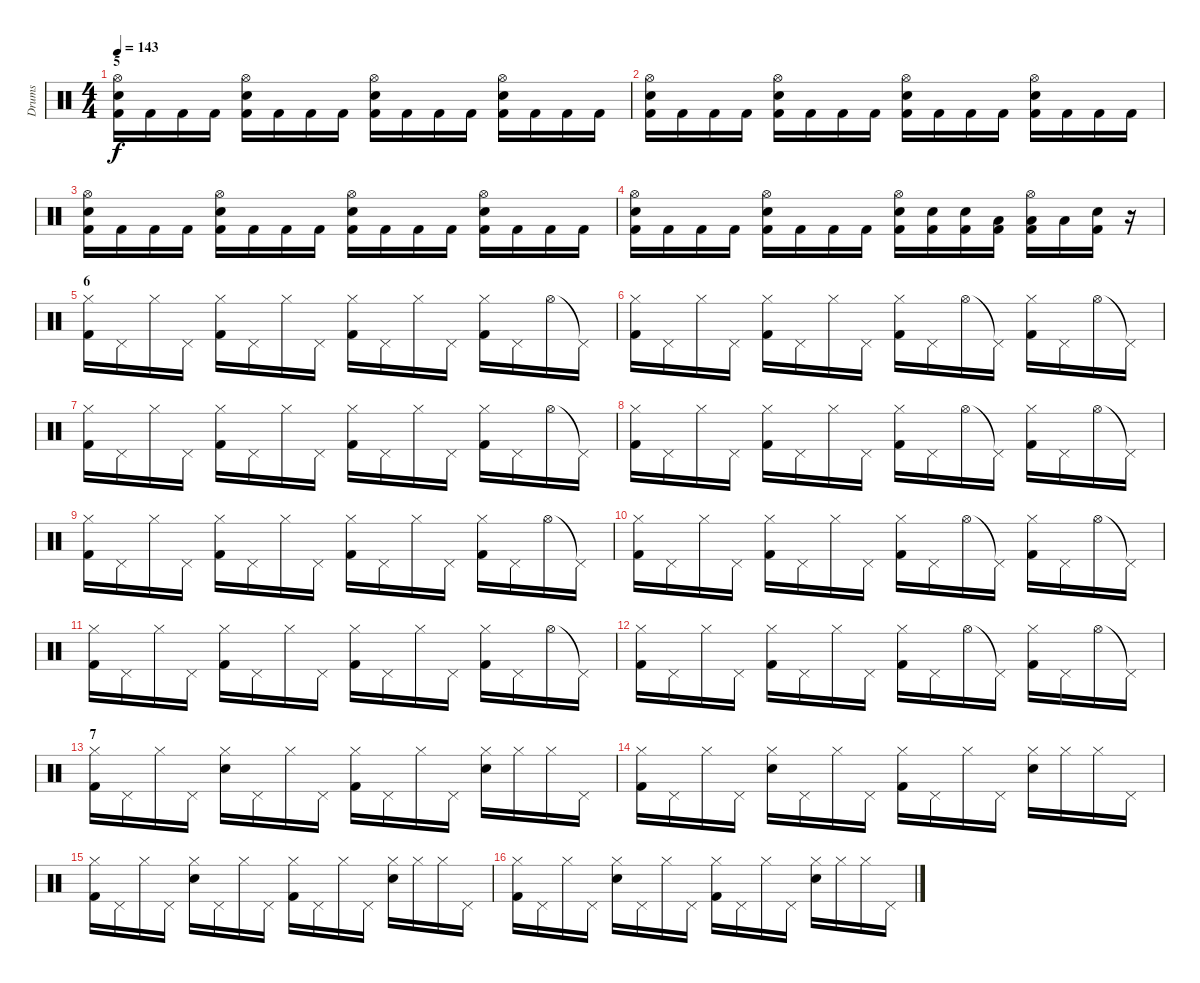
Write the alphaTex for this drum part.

\track ("Drums" "Drums") {instrument percussion}
\staff {score}
\articulation defaults
\ts (4 4)
\section ("" "5")
\tempo 143
\clef neutral
\ks c
("Hi-Hat (open)" "Kick (hit) 2" "Electric Snare (hit)").16{dy f} "Kick (hit) 2".16 "Kick (hit) 2".16 "Kick (hit) 2".16 ("Hi-Hat (open)" "Kick (hit) 2" "Electric Snare (hit)").16 "Kick (hit) 2".16 "Kick (hit) 2".16 "Kick (hit) 2".16 ("Hi-Hat (open)" "Kick (hit) 2" "Electric Snare (hit)").16 "Kick (hit) 2".16 "Kick (hit) 2".16 "Kick (hit) 2".16 ("Hi-Hat (open)" "Kick (hit) 2" "Electric Snare (hit)").16 "Kick (hit) 2".16 "Kick (hit) 2".16 "Kick (hit) 2".16 |
("Hi-Hat (open)" "Kick (hit) 2" "Electric Snare (hit)").16 "Kick (hit) 2".16 "Kick (hit) 2".16 "Kick (hit) 2".16 ("Hi-Hat (open)" "Kick (hit) 2" "Electric Snare (hit)").16 "Kick (hit) 2".16 "Kick (hit) 2".16 "Kick (hit) 2".16 ("Hi-Hat (open)" "Kick (hit) 2" "Electric Snare (hit)").16 "Kick (hit) 2".16 "Kick (hit) 2".16 "Kick (hit) 2".16 ("Hi-Hat (open)" "Kick (hit) 2" "Electric Snare (hit)").16 "Kick (hit) 2".16 "Kick (hit) 2".16 "Kick (hit) 2".16 |
("Hi-Hat (open)" "Kick (hit) 2" "Electric Snare (hit)").16 "Kick (hit) 2".16 "Kick (hit) 2".16 "Kick (hit) 2".16 ("Hi-Hat (open)" "Kick (hit) 2" "Electric Snare (hit)").16 "Kick (hit) 2".16 "Kick (hit) 2".16 "Kick (hit) 2".16 ("Hi-Hat (open)" "Kick (hit) 2" "Electric Snare (hit)").16 "Kick (hit) 2".16 "Kick (hit) 2".16 "Kick (hit) 2".16 ("Hi-Hat (open)" "Kick (hit) 2" "Electric Snare (hit)").16 "Kick (hit) 2".16 "Kick (hit) 2".16 "Kick (hit) 2".16 |
("Hi-Hat (open)" "Kick (hit) 2" "Electric Snare (hit)").16 "Kick (hit) 2".16 "Kick (hit) 2".16 "Kick (hit) 2".16 ("Hi-Hat (open)" "Kick (hit) 2" "Electric Snare (hit)").16 "Kick (hit) 2".16 "Kick (hit) 2".16 "Kick (hit) 2".16 ("Hi-Hat (open)" "Kick (hit) 2" "Electric Snare (hit)").16 ("Kick (hit) 2" "Electric Snare (hit)").16 ("Kick (hit) 2" "Electric Snare (hit)").16 ("Kick (hit) 2" "Low Tom (hit)").16 ("Hi-Hat (open)" "Kick (hit) 2" "Low Tom (hit)").16 "Low Tom (hit)".16 ("Kick (hit) 2" "Electric Snare (hit)").16 r.16 |
\section ("" "6")
("Hi-Hat (closed)" "Kick (hit) 2").16 "Pedal Hi-Hat (hit)".16 "Hi-Hat (closed)".16 "Pedal Hi-Hat (hit)".16 ("Hi-Hat (closed)" "Kick (hit) 2").16 "Pedal Hi-Hat (hit)".16 "Hi-Hat (closed)".16 "Pedal Hi-Hat (hit)".16 ("Hi-Hat (closed)" "Kick (hit) 2").16 "Pedal Hi-Hat (hit)".16 "Hi-Hat (closed)".16 "Pedal Hi-Hat (hit)".16 ("Hi-Hat (closed)" "Kick (hit) 2").16 "Pedal Hi-Hat (hit)".16 "Hi-Hat (open)".16 "Pedal Hi-Hat (hit)"{t}.16 |
("Hi-Hat (closed)" "Kick (hit) 2").16 "Pedal Hi-Hat (hit)".16 "Hi-Hat (closed)".16 "Pedal Hi-Hat (hit)".16 ("Hi-Hat (closed)" "Kick (hit) 2").16 "Pedal Hi-Hat (hit)".16 "Hi-Hat (closed)".16 "Pedal Hi-Hat (hit)".16 ("Hi-Hat (closed)" "Kick (hit) 2").16 "Pedal Hi-Hat (hit)".16 "Hi-Hat (open)".16 "Pedal Hi-Hat (hit)"{t}.16 ("Hi-Hat (closed)" "Kick (hit) 2").16 "Pedal Hi-Hat (hit)".16 "Hi-Hat (open)".16 "Pedal Hi-Hat (hit)"{t}.16 |
("Hi-Hat (closed)" "Kick (hit) 2").16 "Pedal Hi-Hat (hit)".16 "Hi-Hat (closed)".16 "Pedal Hi-Hat (hit)".16 ("Hi-Hat (closed)" "Kick (hit) 2").16 "Pedal Hi-Hat (hit)".16 "Hi-Hat (closed)".16 "Pedal Hi-Hat (hit)".16 ("Hi-Hat (closed)" "Kick (hit) 2").16 "Pedal Hi-Hat (hit)".16 "Hi-Hat (closed)".16 "Pedal Hi-Hat (hit)".16 ("Hi-Hat (closed)" "Kick (hit) 2").16 "Pedal Hi-Hat (hit)".16 "Hi-Hat (open)".16 "Pedal Hi-Hat (hit)"{t}.16 |
("Hi-Hat (closed)" "Kick (hit) 2").16 "Pedal Hi-Hat (hit)".16 "Hi-Hat (closed)".16 "Pedal Hi-Hat (hit)".16 ("Hi-Hat (closed)" "Kick (hit) 2").16 "Pedal Hi-Hat (hit)".16 "Hi-Hat (closed)".16 "Pedal Hi-Hat (hit)".16 ("Hi-Hat (closed)" "Kick (hit) 2").16 "Pedal Hi-Hat (hit)".16 "Hi-Hat (open)".16 "Pedal Hi-Hat (hit)"{t}.16 ("Hi-Hat (closed)" "Kick (hit) 2").16 "Pedal Hi-Hat (hit)".16 "Hi-Hat (open)".16 "Pedal Hi-Hat (hit)"{t}.16 |
("Hi-Hat (closed)" "Kick (hit) 2").16 "Pedal Hi-Hat (hit)".16 "Hi-Hat (closed)".16 "Pedal Hi-Hat (hit)".16 ("Hi-Hat (closed)" "Kick (hit) 2").16 "Pedal Hi-Hat (hit)".16 "Hi-Hat (closed)".16 "Pedal Hi-Hat (hit)".16 ("Hi-Hat (closed)" "Kick (hit) 2").16 "Pedal Hi-Hat (hit)".16 "Hi-Hat (closed)".16 "Pedal Hi-Hat (hit)".16 ("Hi-Hat (closed)" "Kick (hit) 2").16 "Pedal Hi-Hat (hit)".16 "Hi-Hat (open)".16 "Pedal Hi-Hat (hit)"{t}.16 |
("Hi-Hat (closed)" "Kick (hit) 2").16 "Pedal Hi-Hat (hit)".16 "Hi-Hat (closed)".16 "Pedal Hi-Hat (hit)".16 ("Hi-Hat (closed)" "Kick (hit) 2").16 "Pedal Hi-Hat (hit)".16 "Hi-Hat (closed)".16 "Pedal Hi-Hat (hit)".16 ("Hi-Hat (closed)" "Kick (hit) 2").16 "Pedal Hi-Hat (hit)".16 "Hi-Hat (open)".16 "Pedal Hi-Hat (hit)"{t}.16 ("Hi-Hat (closed)" "Kick (hit) 2").16 "Pedal Hi-Hat (hit)".16 "Hi-Hat (open)".16 "Pedal Hi-Hat (hit)"{t}.16 |
("Hi-Hat (closed)" "Kick (hit) 2").16 "Pedal Hi-Hat (hit)".16 "Hi-Hat (closed)".16 "Pedal Hi-Hat (hit)".16 ("Hi-Hat (closed)" "Kick (hit) 2").16 "Pedal Hi-Hat (hit)".16 "Hi-Hat (closed)".16 "Pedal Hi-Hat (hit)".16 ("Hi-Hat (closed)" "Kick (hit) 2").16 "Pedal Hi-Hat (hit)".16 "Hi-Hat (closed)".16 "Pedal Hi-Hat (hit)".16 ("Hi-Hat (closed)" "Kick (hit) 2").16 "Pedal Hi-Hat (hit)".16 "Hi-Hat (open)".16 "Pedal Hi-Hat (hit)"{t}.16 |
("Hi-Hat (closed)" "Kick (hit) 2").16 "Pedal Hi-Hat (hit)".16 "Hi-Hat (closed)".16 "Pedal Hi-Hat (hit)".16 ("Hi-Hat (closed)" "Kick (hit) 2").16 "Pedal Hi-Hat (hit)".16 "Hi-Hat (closed)".16 "Pedal Hi-Hat (hit)".16 ("Hi-Hat (closed)" "Kick (hit) 2").16 "Pedal Hi-Hat (hit)".16 "Hi-Hat (open)".16 "Pedal Hi-Hat (hit)"{t}.16 ("Hi-Hat (closed)" "Kick (hit) 2").16 "Pedal Hi-Hat (hit)".16 "Hi-Hat (open)".16 "Pedal Hi-Hat (hit)"{t}.16 |
\section ("" "7")
("Hi-Hat (closed)" "Kick (hit) 2").16 "Pedal Hi-Hat (hit)".16 "Hi-Hat (closed)".16 "Pedal Hi-Hat (hit)".16 ("Hi-Hat (closed)" "Electric Snare (hit)").16 "Pedal Hi-Hat (hit)".16 "Hi-Hat (closed)".16 "Pedal Hi-Hat (hit)".16 ("Hi-Hat (closed)" "Kick (hit) 2").16 "Pedal Hi-Hat (hit)".16 "Hi-Hat (closed)".16 "Pedal Hi-Hat (hit)".16 ("Hi-Hat (closed)" "Electric Snare (hit)").16 "Hi-Hat (closed)".16 "Hi-Hat (closed)".16 "Pedal Hi-Hat (hit)".16 |
("Hi-Hat (closed)" "Kick (hit) 2").16 "Pedal Hi-Hat (hit)".16 "Hi-Hat (closed)".16 "Pedal Hi-Hat (hit)".16 ("Hi-Hat (closed)" "Electric Snare (hit)").16 "Pedal Hi-Hat (hit)".16 "Hi-Hat (closed)".16 "Pedal Hi-Hat (hit)".16 ("Hi-Hat (closed)" "Kick (hit) 2").16 "Pedal Hi-Hat (hit)".16 "Hi-Hat (closed)".16 "Pedal Hi-Hat (hit)".16 ("Hi-Hat (closed)" "Electric Snare (hit)").16 "Hi-Hat (closed)".16 "Hi-Hat (closed)".16 "Pedal Hi-Hat (hit)".16 |
("Hi-Hat (closed)" "Kick (hit) 2").16 "Pedal Hi-Hat (hit)".16 "Hi-Hat (closed)".16 "Pedal Hi-Hat (hit)".16 ("Hi-Hat (closed)" "Electric Snare (hit)").16 "Pedal Hi-Hat (hit)".16 "Hi-Hat (closed)".16 "Pedal Hi-Hat (hit)".16 ("Hi-Hat (closed)" "Kick (hit) 2").16 "Pedal Hi-Hat (hit)".16 "Hi-Hat (closed)".16 "Pedal Hi-Hat (hit)".16 ("Hi-Hat (closed)" "Electric Snare (hit)").16 "Hi-Hat (closed)".16 "Hi-Hat (closed)".16 "Pedal Hi-Hat (hit)".16 |
("Hi-Hat (closed)" "Kick (hit) 2").16 "Pedal Hi-Hat (hit)".16 "Hi-Hat (closed)".16 "Pedal Hi-Hat (hit)".16 ("Hi-Hat (closed)" "Electric Snare (hit)").16 "Pedal Hi-Hat (hit)".16 "Hi-Hat (closed)".16 "Pedal Hi-Hat (hit)".16 ("Hi-Hat (closed)" "Kick (hit) 2").16 "Pedal Hi-Hat (hit)".16 "Hi-Hat (closed)".16 "Pedal Hi-Hat (hit)".16 ("Hi-Hat (closed)" "Electric Snare (hit)").16 "Hi-Hat (closed)".16 "Hi-Hat (closed)".16 "Pedal Hi-Hat (hit)".16
